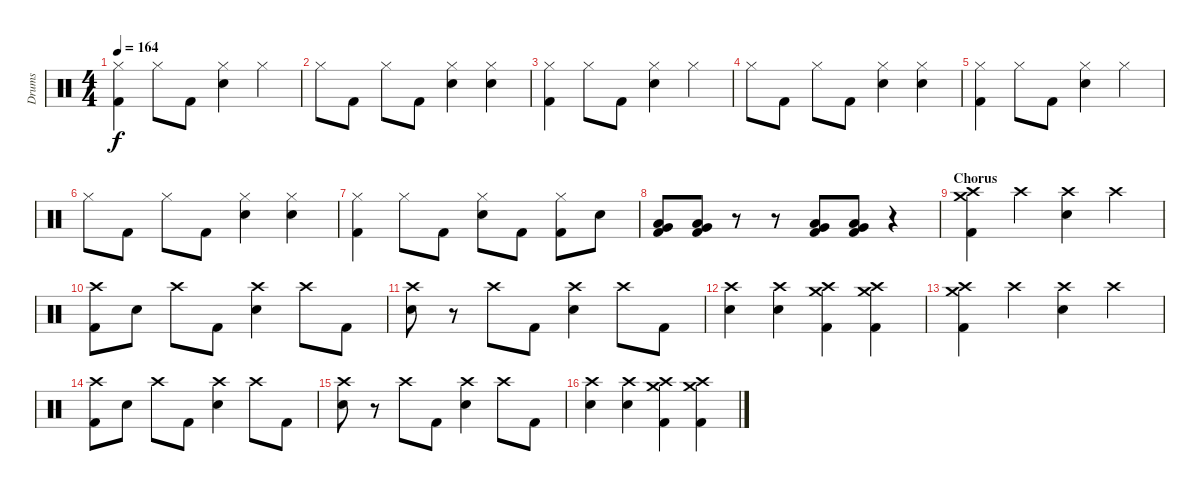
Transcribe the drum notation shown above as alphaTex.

\track ("Drums" "Drums") {instrument percussion}
\staff {score}
\articulation defaults
\ts (4 4)
\tempo 164
\clef neutral
\ks c
("Hi-Hat (closed)" "Kick (hit) 2").4{dy f} "Hi-Hat (closed)".8 "Kick (hit) 2".8 ("Hi-Hat (closed)" "Electric Snare (hit)").4 "Hi-Hat (closed)".4 |
"Hi-Hat (closed)".8 "Kick (hit) 2".8 "Hi-Hat (closed)".8 "Kick (hit) 2".8 ("Hi-Hat (closed)" "Electric Snare (hit)").4 ("Hi-Hat (closed)" "Electric Snare (hit)").4 |
("Hi-Hat (closed)" "Kick (hit) 2").4 "Hi-Hat (closed)".8 "Kick (hit) 2".8 ("Hi-Hat (closed)" "Electric Snare (hit)").4 "Hi-Hat (closed)".4 |
"Hi-Hat (closed)".8 "Kick (hit) 2".8 "Hi-Hat (closed)".8 "Kick (hit) 2".8 ("Hi-Hat (closed)" "Electric Snare (hit)").4 ("Hi-Hat (closed)" "Electric Snare (hit)").4 |
("Hi-Hat (closed)" "Kick (hit) 2").4 "Hi-Hat (closed)".8 "Kick (hit) 2".8 ("Hi-Hat (closed)" "Electric Snare (hit)").4 "Hi-Hat (closed)".4 |
"Hi-Hat (closed)".8 "Kick (hit) 2".8 "Hi-Hat (closed)".8 "Kick (hit) 2".8 ("Hi-Hat (closed)" "Electric Snare (hit)").4 ("Hi-Hat (closed)" "Electric Snare (hit)").4 |
("Hi-Hat (closed)" "Kick (hit) 2").4 "Hi-Hat (closed)".8 "Kick (hit) 2".8 ("Hi-Hat (closed)" "Electric Snare (hit)").8 "Kick (hit) 2".8 ("Hi-Hat (closed)" "Kick (hit) 2").8 "Electric Snare (hit)".8 |
("Low Floor Tom (hit)" "Very Low Tom (hit)" "Kick (hit) 2").8 ("Low Floor Tom (hit)" "Very Low Tom (hit)" "Kick (hit) 2").8 r.8 r.8 ("Low Floor Tom (hit)" "Very Low Tom (hit)" "Kick (hit) 2").8 ("Low Floor Tom (hit)" "Very Low Tom (hit)" "Kick (hit) 2").8 r.4 |
\section ("" "Chorus")
("Crash medium (hit)" "Crash high (hit)" "Kick (hit) 2").4 "Crash high (hit)".4 ("Crash high (hit)" "Electric Snare (hit)").4 "Crash high (hit)".4 |
("Crash high (hit)" "Kick (hit) 2").8 "Electric Snare (hit)".8 "Crash high (hit)".8 "Kick (hit) 2".8 ("Crash high (hit)" "Electric Snare (hit)").4 "Crash high (hit)".8 "Kick (hit) 2".8 |
("Crash high (hit)" "Electric Snare (hit)").8 r.8 "Crash high (hit)".8 "Kick (hit) 2".8 ("Crash high (hit)" "Electric Snare (hit)").4 "Crash high (hit)".8 "Kick (hit) 2".8 |
("Crash high (hit)" "Electric Snare (hit)").4 ("Crash high (hit)" "Electric Snare (hit)").4 ("Crash medium (hit)" "Crash high (hit)" "Kick (hit) 2").4 ("Crash medium (hit)" "Crash high (hit)" "Kick (hit) 2").4 |
("Crash medium (hit)" "Crash high (hit)" "Kick (hit) 2").4 "Crash high (hit)".4 ("Crash high (hit)" "Electric Snare (hit)").4 "Crash high (hit)".4 |
("Crash high (hit)" "Kick (hit) 2").8 "Electric Snare (hit)".8 "Crash high (hit)".8 "Kick (hit) 2".8 ("Crash high (hit)" "Electric Snare (hit)").4 "Crash high (hit)".8 "Kick (hit) 2".8 |
("Crash high (hit)" "Electric Snare (hit)").8 r.8 "Crash high (hit)".8 "Kick (hit) 2".8 ("Crash high (hit)" "Electric Snare (hit)").4 "Crash high (hit)".8 "Kick (hit) 2".8 |
("Crash high (hit)" "Electric Snare (hit)").4 ("Crash high (hit)" "Electric Snare (hit)").4 ("Crash medium (hit)" "Crash high (hit)" "Kick (hit) 2").4 ("Crash medium (hit)" "Crash high (hit)" "Kick (hit) 2").4
